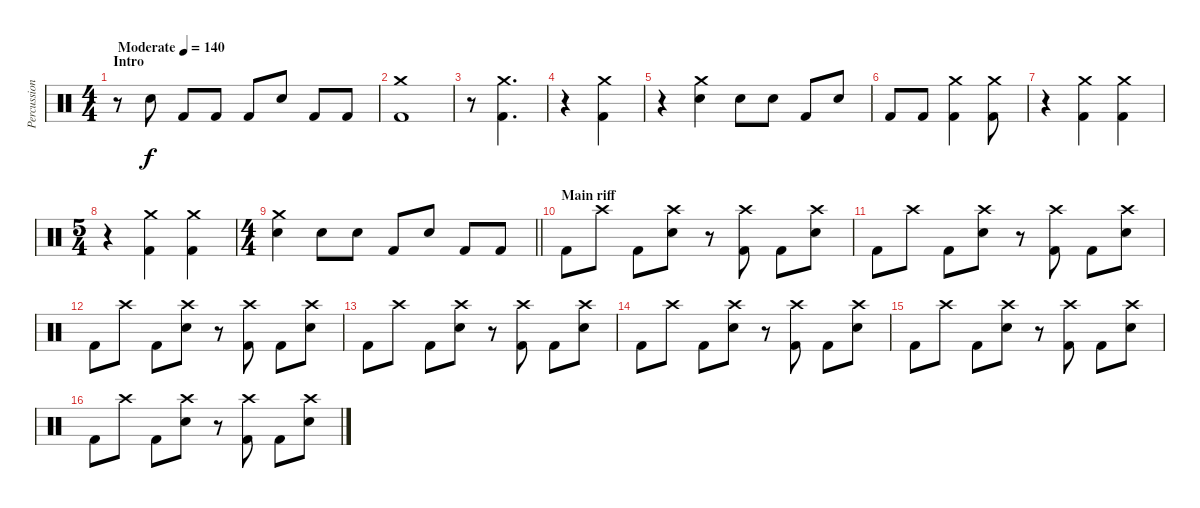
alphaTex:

\track ("Percussion" "Percussion") {instrument percussion}
\staff {score}
\articulation defaults
\ts (4 4)
\section ("" "Intro")
\tempo (140 "Moderate")
\clef neutral
\ks c
r.8{dy f} "Electric Snare (hit)".8 "Kick (hit) 2".8 "Kick (hit) 2".8 "Kick (hit) 2".8 "Electric Snare (hit)".8 "Kick (hit) 2".8 "Kick (hit) 2".8 |
("Kick (hit) 2" "Crash medium (hit)").1 |
r.8 ("Kick (hit) 2" "Crash medium (hit)").4{d} |
r.4 ("Kick (hit) 2" "Crash medium (hit)").4 |
r.4 ("Crash medium (hit)" "Electric Snare (hit)").4 "Electric Snare (hit)".8 "Electric Snare (hit)".8 "Kick (hit) 2".8 "Electric Snare (hit)".8 |
"Kick (hit) 2".8 "Kick (hit) 2".8 ("Crash medium (hit)" "Kick (hit) 2").4 ("Kick (hit) 2" "Crash medium (hit)").8 |
r.4 ("Kick (hit) 2" "Crash medium (hit)").4 ("Kick (hit) 2" "Crash medium (hit)").4 |
\ts (5 4)
r.4 ("Crash medium (hit)" "Kick (hit) 2").4 ("Crash medium (hit)" "Kick (hit) 2").4 |
\ts (4 4)
\barLineRight lightlight
("Crash medium (hit)" "Electric Snare (hit)").4 "Electric Snare (hit)".8 "Electric Snare (hit)".8 "Kick (hit) 2".8 "Electric Snare (hit)".8 "Kick (hit) 2".8 "Kick (hit) 2".8 |
\section ("" "Main riff")
"Kick (hit) 2".8 "Crash high (hit)".8 "Kick (hit) 2".8 ("Crash high (hit)" "Electric Snare (hit)").8 r.8 ("Crash high (hit)" "Kick (hit) 2").8 "Kick (hit) 2".8 ("Crash high (hit)" "Electric Snare (hit)").8 |
"Kick (hit) 2".8 "Crash high (hit)".8 "Kick (hit) 2".8 ("Crash high (hit)" "Electric Snare (hit)").8 r.8 ("Crash high (hit)" "Kick (hit) 2").8 "Kick (hit) 2".8 ("Crash high (hit)" "Electric Snare (hit)").8 |
"Kick (hit) 2".8 "Crash high (hit)".8 "Kick (hit) 2".8 ("Crash high (hit)" "Electric Snare (hit)").8 r.8 ("Crash high (hit)" "Kick (hit) 2").8 "Kick (hit) 2".8 ("Crash high (hit)" "Electric Snare (hit)").8 |
"Kick (hit) 2".8 "Crash high (hit)".8 "Kick (hit) 2".8 ("Crash high (hit)" "Electric Snare (hit)").8 r.8 ("Crash high (hit)" "Kick (hit) 2").8 "Kick (hit) 2".8 ("Crash high (hit)" "Electric Snare (hit)").8 |
"Kick (hit) 2".8 "Crash high (hit)".8 "Kick (hit) 2".8 ("Crash high (hit)" "Electric Snare (hit)").8 r.8 ("Crash high (hit)" "Kick (hit) 2").8 "Kick (hit) 2".8 ("Crash high (hit)" "Electric Snare (hit)").8 |
"Kick (hit) 2".8 "Crash high (hit)".8 "Kick (hit) 2".8 ("Crash high (hit)" "Electric Snare (hit)").8 r.8 ("Crash high (hit)" "Kick (hit) 2").8 "Kick (hit) 2".8 ("Crash high (hit)" "Electric Snare (hit)").8 |
"Kick (hit) 2".8 "Crash high (hit)".8 "Kick (hit) 2".8 ("Crash high (hit)" "Electric Snare (hit)").8 r.8 ("Crash high (hit)" "Kick (hit) 2").8 "Kick (hit) 2".8 ("Crash high (hit)" "Electric Snare (hit)").8
